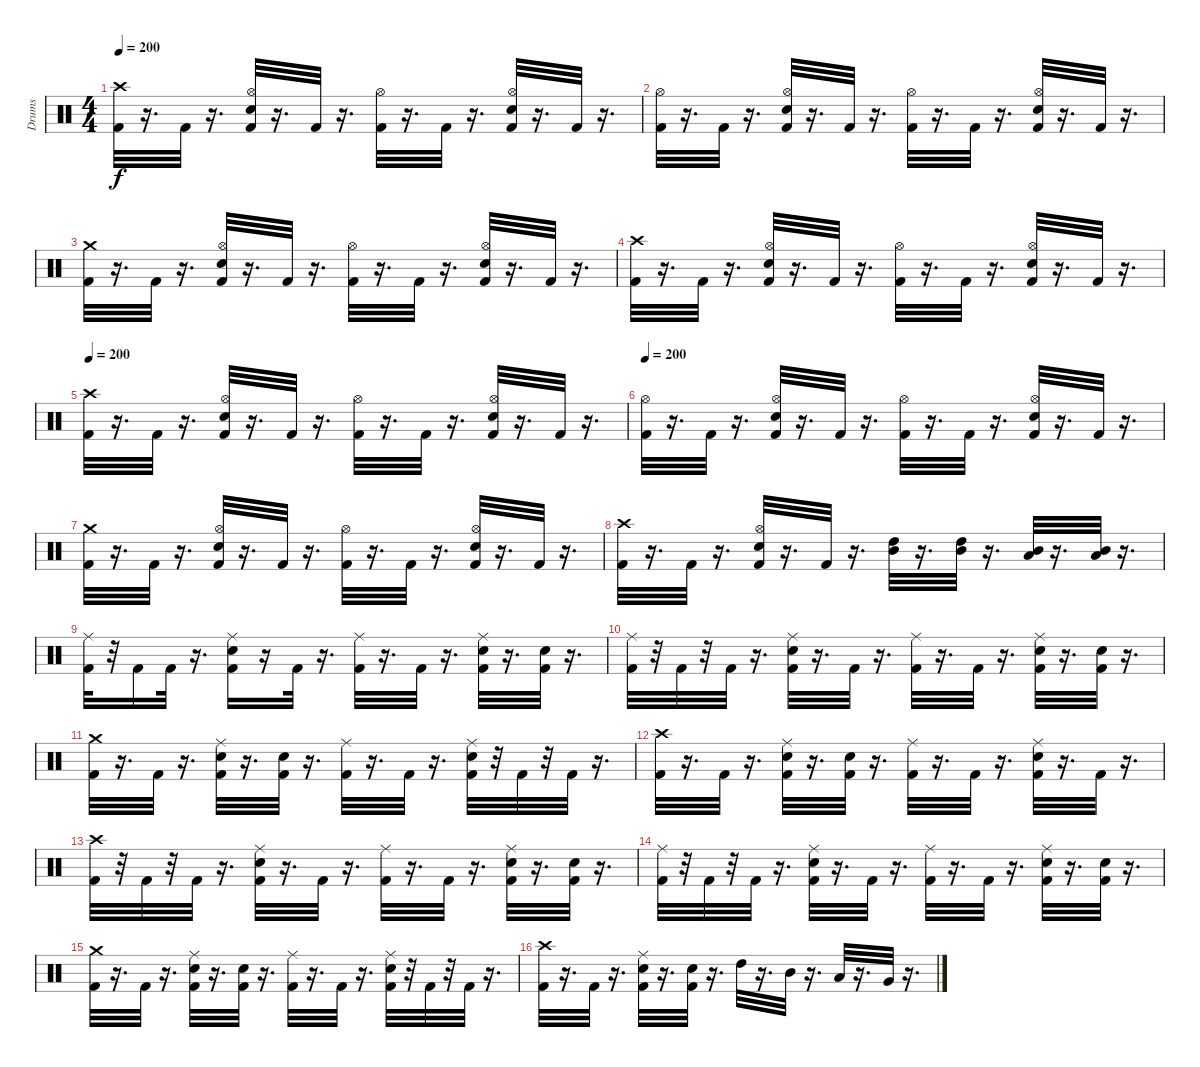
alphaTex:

\track ("Drums" "Drums") {instrument percussion}
\staff {score}
\articulation defaults
\ts (4 4)
\tempo 200
\clef neutral
\ks c
("Crash high (hit)" "Kick (hit) 2").32{dy f} r.16{d} "Kick (hit) 2".32 r.16{d} ("Hi-Hat (open)" "Electric Snare (hit)" "Kick (hit) 2").32 r.16{d} "Kick (hit) 2".32 r.16{d} ("Hi-Hat (open)" "Kick (hit) 2").32 r.16{d} "Kick (hit) 2".32 r.16{d} ("Hi-Hat (open)" "Electric Snare (hit)" "Kick (hit) 2").32 r.16{d} "Kick (hit) 2".32 r.16{d} |
("Hi-Hat (open)" "Kick (hit) 2").32 r.16{d} "Kick (hit) 2".32 r.16{d} ("Hi-Hat (open)" "Electric Snare (hit)" "Kick (hit) 2").32 r.16{d} "Kick (hit) 2".32 r.16{d} ("Hi-Hat (open)" "Kick (hit) 2").32 r.16{d} "Kick (hit) 2".32 r.16{d} ("Hi-Hat (open)" "Electric Snare (hit)" "Kick (hit) 2").32 r.16{d} "Kick (hit) 2".32 r.16{d} |
("Kick (hit) 2" "Crash medium (hit)").32 r.16{d} "Kick (hit) 2".32 r.16{d} ("Kick (hit) 2" "Electric Snare (hit)" "Hi-Hat (open)").32 r.16{d} "Kick (hit) 2".32 r.16{d} ("Kick (hit) 2" "Hi-Hat (open)").32 r.16{d} "Kick (hit) 2".32 r.16{d} ("Kick (hit) 2" "Hi-Hat (open)" "Electric Snare (hit)").32 r.16{d} "Kick (hit) 2".32 r.16{d} |
("Kick (hit) 2" "Crash high (hit)").32 r.16{d} "Kick (hit) 2".32 r.16{d} ("Kick (hit) 2" "Electric Snare (hit)" "Hi-Hat (open)").32 r.16{d} "Kick (hit) 2".32 r.16{d} ("Hi-Hat (open)" "Kick (hit) 2").32 r.16{d} "Kick (hit) 2".32 r.16{d} ("Kick (hit) 2" "Electric Snare (hit)" "Hi-Hat (open)").32 r.16{d} "Kick (hit) 2".32 r.16{d} |
\tempo 200
("Crash high (hit)" "Kick (hit) 2").32 r.16{d} "Kick (hit) 2".32 r.16{d} ("Hi-Hat (open)" "Electric Snare (hit)" "Kick (hit) 2").32 r.16{d} "Kick (hit) 2".32 r.16{d} ("Hi-Hat (open)" "Kick (hit) 2").32 r.16{d} "Kick (hit) 2".32 r.16{d} ("Hi-Hat (open)" "Electric Snare (hit)" "Kick (hit) 2").32 r.16{d} "Kick (hit) 2".32 r.16{d} |
\tempo 200
("Hi-Hat (open)" "Kick (hit) 2").32 r.16{d} "Kick (hit) 2".32 r.16{d} ("Hi-Hat (open)" "Electric Snare (hit)" "Kick (hit) 2").32 r.16{d} "Kick (hit) 2".32 r.16{d} ("Hi-Hat (open)" "Kick (hit) 2").32 r.16{d} "Kick (hit) 2".32 r.16{d} ("Hi-Hat (open)" "Electric Snare (hit)" "Kick (hit) 2").32 r.16{d} "Kick (hit) 2".32 r.16{d} |
("Kick (hit) 2" "Crash medium (hit)").32 r.16{d} "Kick (hit) 2".32 r.16{d} ("Kick (hit) 2" "Electric Snare (hit)" "Hi-Hat (open)").32 r.16{d} "Kick (hit) 2".32 r.16{d} ("Kick (hit) 2" "Hi-Hat (open)").32 r.16{d} "Kick (hit) 2".32 r.16{d} ("Kick (hit) 2" "Hi-Hat (open)" "Electric Snare (hit)").32 r.16{d} "Kick (hit) 2".32 r.16{d} |
("Kick (hit) 2" "Crash high (hit)").32 r.16{d} "Kick (hit) 2".32 r.16{d} ("Kick (hit) 2" "Electric Snare (hit)" "Hi-Hat (open)").32 r.16{d} "Kick (hit) 2".32 r.16{d} ("Mid Tom (hit)" "High Tom (hit)").32 r.16{d} ("Mid Tom (hit)" "High Tom (hit)").32 r.16{d} ("Low Tom (hit)" "Mid Tom (hit)").32 r.16{d} ("Low Tom (hit)" "Mid Tom (hit)").32 r.16{d} |
("Ride (middle)" "Kick (hit) 2").32 r.32 "Kick (hit) 2".16 "Kick (hit) 2".32 r.16{d} ("Ride (middle)" "Electric Snare (hit)" "Kick (hit) 2").16 r.16 "Kick (hit) 2".32 r.16{d} ("Ride (middle)" "Kick (hit) 2").32 r.16{d} "Kick (hit) 2".32 r.16{d} ("Kick (hit) 2" "Ride (middle)" "Electric Snare (hit)").32 r.16{d} ("Kick (hit) 2" "Electric Snare (hit)").32 r.16{d} |
("Ride (middle)" "Kick (hit) 2").32 r.32 "Kick (hit) 2".32 r.32 "Kick (hit) 2".32 r.16{d} ("Ride (middle)" "Electric Snare (hit)" "Kick (hit) 2").32 r.16{d} "Kick (hit) 2".32 r.16{d} ("Ride (middle)" "Kick (hit) 2").32 r.16{d} "Kick (hit) 2".32 r.16{d} ("Ride (middle)" "Electric Snare (hit)" "Kick (hit) 2").32 r.16{d} ("Electric Snare (hit)" "Kick (hit) 2").32 r.16{d} |
("Kick (hit) 2" "Crash medium (hit)").32 r.16{d} "Kick (hit) 2".32 r.16{d} ("Kick (hit) 2" "Electric Snare (hit)" "Ride (middle)").32 r.16{d} ("Electric Snare (hit)" "Kick (hit) 2").32 r.16{d} ("Kick (hit) 2" "Ride (middle)").32 r.16{d} "Kick (hit) 2".32 r.16{d} ("Kick (hit) 2" "Ride (middle)" "Electric Snare (hit)").32 r.32 "Kick (hit) 2".32 r.32 "Kick (hit) 2".32 r.16{d} |
("Kick (hit) 2" "Crash high (hit)").32 r.16{d} "Kick (hit) 2".32 r.16{d} ("Kick (hit) 2" "Electric Snare (hit)" "Ride (middle)").32 r.16{d} ("Electric Snare (hit)" "Kick (hit) 2").32 r.16{d} ("Ride (middle)" "Kick (hit) 2").32 r.16{d} "Kick (hit) 2".32 r.16{d} ("Kick (hit) 2" "Electric Snare (hit)" "Ride (middle)").32 r.16{d} "Kick (hit) 2".32 r.16{d} |
("Crash high (hit)" "Kick (hit) 2").32 r.32 "Kick (hit) 2".32 r.32 "Kick (hit) 2".32 r.16{d} ("Ride (middle)" "Electric Snare (hit)" "Kick (hit) 2").32 r.16{d} "Kick (hit) 2".32 r.16{d} ("Ride (middle)" "Kick (hit) 2").32 r.16{d} "Kick (hit) 2".32 r.16{d} ("Ride (middle)" "Electric Snare (hit)" "Kick (hit) 2").32 r.16{d} ("Electric Snare (hit)" "Kick (hit) 2").32 r.16{d} |
("Ride (middle)" "Kick (hit) 2").32 r.32 "Kick (hit) 2".32 r.32 "Kick (hit) 2".32 r.16{d} ("Ride (middle)" "Electric Snare (hit)" "Kick (hit) 2").32 r.16{d} "Kick (hit) 2".32 r.16{d} ("Ride (middle)" "Kick (hit) 2").32 r.16{d} "Kick (hit) 2".32 r.16{d} ("Ride (middle)" "Electric Snare (hit)" "Kick (hit) 2").32 r.16{d} ("Electric Snare (hit)" "Kick (hit) 2").32 r.16{d} |
("Kick (hit) 2" "Crash medium (hit)").32 r.16{d} "Kick (hit) 2".32 r.16{d} ("Kick (hit) 2" "Electric Snare (hit)" "Ride (middle)").32 r.16{d} ("Electric Snare (hit)" "Kick (hit) 2").32 r.16{d} ("Kick (hit) 2" "Ride (middle)").32 r.16{d} "Kick (hit) 2".32 r.16{d} ("Kick (hit) 2" "Ride (middle)" "Electric Snare (hit)").32 r.32 "Kick (hit) 2".32 r.32 "Kick (hit) 2".32 r.16{d} |
("Kick (hit) 2" "Crash high (hit)").32 r.16{d} "Kick (hit) 2".32 r.16{d} ("Kick (hit) 2" "Electric Snare (hit)" "Ride (middle)").32 r.16{d} ("Electric Snare (hit)" "Kick (hit) 2").32 r.16{d} "High Tom (hit)".32 r.16{d} "Mid Tom (hit)".32 r.16{d} "Low Tom (hit)".32 r.16{d} "Very Low Tom (hit)".32 r.16{d}
